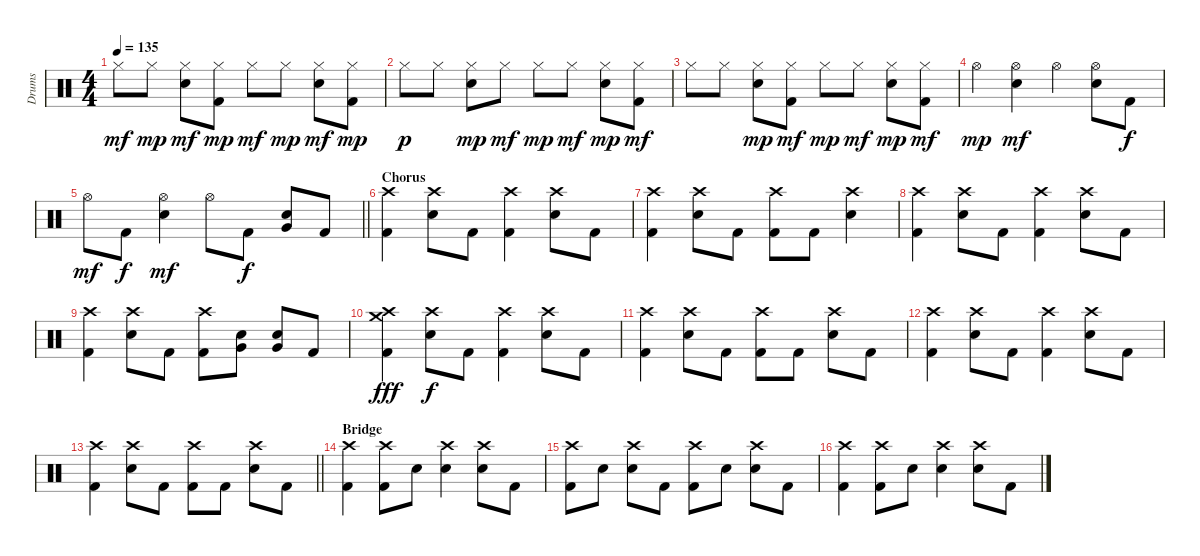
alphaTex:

\track ("Drums" "Drums") {instrument percussion}
\staff {score}
\articulation defaults
\ts (4 4)
\tempo 135
\clef neutral
\ks c "Hi-Hat (closed)".8{dy mf} "Hi-Hat (closed)".8{dy mp}
("Hi-Hat (closed)" "Electric Snare (hit)").8{dy mf} ("Hi-Hat (closed)" "Kick (hit) 2").8{dy mp} "Hi-Hat (closed)".8{dy mf} "Hi-Hat (closed)".8{dy mp} ("Hi-Hat (closed)" "Electric Snare (hit)").8{dy mf} ("Hi-Hat (closed)" "Kick (hit) 2").8{dy mp} |
"Hi-Hat (closed)".8{dy p} "Hi-Hat (closed)".8 ("Hi-Hat (closed)" "Electric Snare (hit)").8{dy mp} "Hi-Hat (closed)".8{dy mf} "Hi-Hat (closed)".8{dy mp} "Hi-Hat (closed)".8{dy mf} ("Hi-Hat (closed)" "Electric Snare (hit)").8{dy mp} ("Hi-Hat (closed)" "Kick (hit) 2").8{dy mf} |
"Hi-Hat (closed)".8 "Hi-Hat (closed)".8 ("Hi-Hat (closed)" "Electric Snare (hit)").8{dy mp} ("Hi-Hat (closed)" "Kick (hit) 2").8{dy mf} "Hi-Hat (closed)".8{dy mp} "Hi-Hat (closed)".8{dy mf} ("Hi-Hat (closed)" "Electric Snare (hit)").8{dy mp} ("Hi-Hat (closed)" "Kick (hit) 2").8{dy mf} |
"Hi-Hat (open)".4{dy mp} ("Hi-Hat (open)" "Electric Snare (hit)").4{dy mf} "Hi-Hat (open)".4 ("Hi-Hat (open)" "Electric Snare (hit)").8 "Kick (hit) 2".8{dy f} |
\barLineRight lightlight "Hi-Hat (open)".8{dy mf} "Kick (hit) 2".8{dy f}
("Hi-Hat (open)" "Electric Snare (hit)").4{dy mf} "Hi-Hat (open)".8 "Kick (hit) 2".8{dy f} ("Very Low Tom (hit)" "Electric Snare (hit)").8 "Kick (hit) 2".8 |
\section ("" "Chorus")
("Crash high (hit)" "Kick (hit) 2").4 ("Crash high (hit)" "Electric Snare (hit)").8 "Kick (hit) 2".8 ("Crash high (hit)" "Kick (hit) 2").4 ("Crash high (hit)" "Electric Snare (hit)").8 "Kick (hit) 2".8 |
("Crash high (hit)" "Kick (hit) 2").4 ("Crash high (hit)" "Electric Snare (hit)").8 "Kick (hit) 2".8 ("Crash high (hit)" "Kick (hit) 2").8 "Kick (hit) 2".8 ("Crash high (hit)" "Electric Snare (hit)").4 |
("Crash high (hit)" "Kick (hit) 2").4 ("Crash high (hit)" "Electric Snare (hit)").8 "Kick (hit) 2".8 ("Crash high (hit)" "Kick (hit) 2").4 ("Crash high (hit)" "Electric Snare (hit)").8 "Kick (hit) 2".8 |
("Crash high (hit)" "Kick (hit) 2").4 ("Crash high (hit)" "Electric Snare (hit)").8 "Kick (hit) 2".8 ("Crash high (hit)" "Kick (hit) 2").8 ("Very Low Tom (hit)" "Electric Snare (hit)").8 ("Very Low Tom (hit)" "Electric Snare (hit)").8 "Kick (hit) 2".8 |
("Crash medium (hit)" "Crash high (hit)" "Kick (hit) 2").4{dy fff} ("Crash high (hit)" "Electric Snare (hit)").8{dy f} "Kick (hit) 2".8 ("Crash high (hit)" "Kick (hit) 2").4 ("Crash high (hit)" "Electric Snare (hit)").8 "Kick (hit) 2".8 |
("Crash high (hit)" "Kick (hit) 2").4 ("Crash high (hit)" "Electric Snare (hit)").8 "Kick (hit) 2".8 ("Crash high (hit)" "Kick (hit) 2").8 "Kick (hit) 2".8 ("Crash high (hit)" "Electric Snare (hit)").8 "Kick (hit) 2".8 |
("Crash high (hit)" "Kick (hit) 2").4 ("Crash high (hit)" "Electric Snare (hit)").8 "Kick (hit) 2".8 ("Crash high (hit)" "Kick (hit) 2").4 ("Crash high (hit)" "Electric Snare (hit)").8 "Kick (hit) 2".8 |
\barLineRight lightlight
("Crash high (hit)" "Kick (hit) 2").4 ("Crash high (hit)" "Electric Snare (hit)").8 "Kick (hit) 2".8 ("Crash high (hit)" "Kick (hit) 2").8 "Kick (hit) 2".8 ("Crash high (hit)" "Electric Snare (hit)").8 "Kick (hit) 2".8 |
\section ("" "Bridge")
("Crash high (hit)" "Kick (hit) 2").4 ("Crash high (hit)" "Kick (hit) 2").8 "Electric Snare (hit)".8 ("Crash high (hit)" "Electric Snare (hit)").4 ("Crash high (hit)" "Electric Snare (hit)").8 "Kick (hit) 2".8 |
("Crash high (hit)" "Kick (hit) 2").8 "Electric Snare (hit)".8 ("Crash high (hit)" "Electric Snare (hit)").8 "Kick (hit) 2".8 ("Crash high (hit)" "Kick (hit) 2").8 "Electric Snare (hit)".8 ("Crash high (hit)" "Electric Snare (hit)").8 "Kick (hit) 2".8 |
("Crash high (hit)" "Kick (hit) 2").4 ("Crash high (hit)" "Kick (hit) 2").8 "Electric Snare (hit)".8 ("Crash high (hit)" "Electric Snare (hit)").4 ("Crash high (hit)" "Electric Snare (hit)").8 "Kick (hit) 2".8
